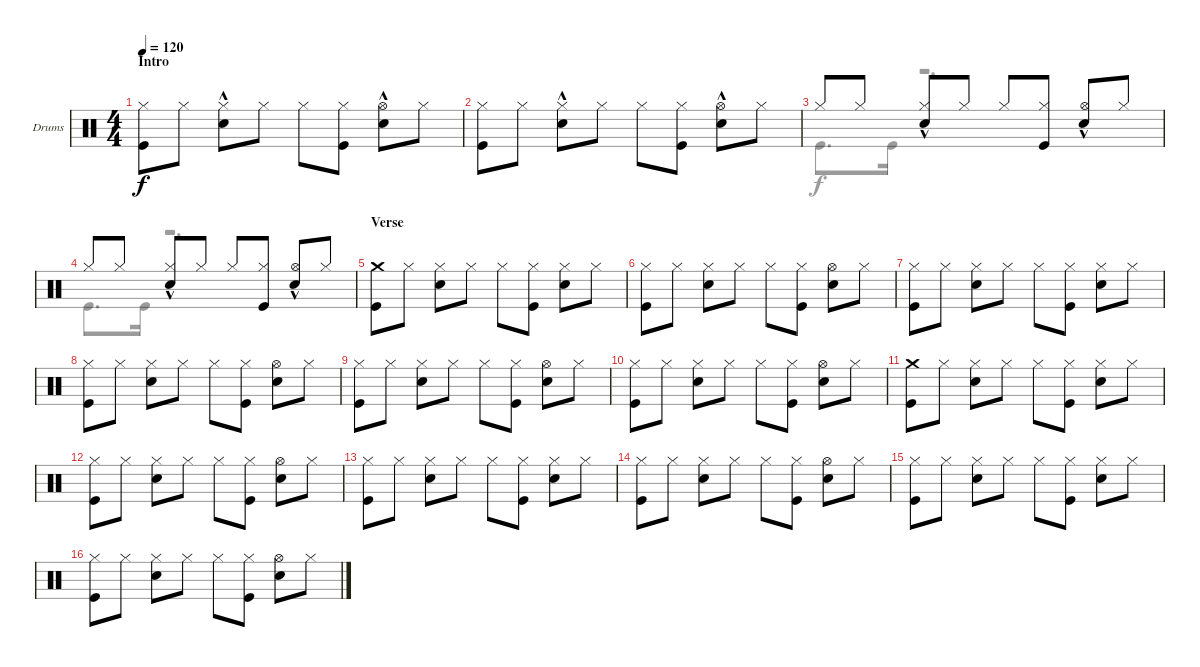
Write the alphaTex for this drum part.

\defaultSystemsLayout 4
\bracketExtendMode groupsimilarinstruments
\firstSystemTrackNameOrientation horizontal
\otherSystemsTrackNameOrientation horizontal
\track ("Drums" "Drums") {instrument percussion}
\staff {score}
\articulation defaults
\voice
\ts (4 4)
\section ("" "Intro")
\tempo 120
\clef neutral
\ks c
("Kick (hit)" "Hi-Hat (closed)").8{dy f} "Hi-Hat (closed)".8 ("Snare (hit) 2"{hac} "Hi-Hat (closed)").8 "Hi-Hat (closed)".8 "Hi-Hat (closed)".8 ("Kick (hit)" "Hi-Hat (closed)").8 ("Snare (hit) 2"{hac} "Hi-Hat (open)").8 "Hi-Hat (closed)".8 |
("Kick (hit)" "Hi-Hat (closed)").8 "Hi-Hat (closed)".8 ("Snare (hit) 2"{hac} "Hi-Hat (closed)").8 "Hi-Hat (closed)".8 "Hi-Hat (closed)".8 ("Kick (hit)" "Hi-Hat (closed)").8 ("Snare (hit) 2"{hac} "Hi-Hat (open)").8 "Hi-Hat (closed)".8 |
"Hi-Hat (closed)".8 "Hi-Hat (closed)".8 ("Hi-Hat (closed)" "Snare (hit) 2"{hac}).8 "Hi-Hat (closed)".8 "Hi-Hat (closed)".8 ("Hi-Hat (closed)" "Kick (hit)").8 ("Hi-Hat (open)" "Snare (hit) 2"{hac}).8 "Hi-Hat (closed)".8 |
"Hi-Hat (closed)".8 "Hi-Hat (closed)".8 ("Hi-Hat (closed)" "Snare (hit) 2"{hac}).8 "Hi-Hat (closed)".8 "Hi-Hat (closed)".8 ("Hi-Hat (closed)" "Kick (hit)").8 ("Hi-Hat (open)" "Snare (hit) 2"{hac}).8 "Hi-Hat (closed)".8 |
\section ("" "Verse")
("Kick (hit)" "Crash medium (hit)").8 "Hi-Hat (closed)".8 ("Snare (hit) 2" "Hi-Hat (closed)").8 "Hi-Hat (closed)".8 "Hi-Hat (closed)".8 ("Kick (hit)" "Hi-Hat (closed)").8 ("Snare (hit) 2" "Hi-Hat (closed)").8 "Hi-Hat (closed)".8 |
("Kick (hit)" "Hi-Hat (closed)").8 "Hi-Hat (closed)".8 ("Snare (hit) 2" "Hi-Hat (closed)").8 "Hi-Hat (closed)".8 "Hi-Hat (closed)".8 ("Kick (hit)" "Hi-Hat (closed)").8 ("Snare (hit) 2" "Hi-Hat (open)").8 "Hi-Hat (closed)".8 |
("Kick (hit)" "Hi-Hat (closed)").8 "Hi-Hat (closed)".8 ("Snare (hit) 2" "Hi-Hat (closed)").8 "Hi-Hat (closed)".8 "Hi-Hat (closed)".8 ("Kick (hit)" "Hi-Hat (closed)").8 ("Snare (hit) 2" "Hi-Hat (closed)").8 "Hi-Hat (closed)".8 |
("Kick (hit)" "Hi-Hat (closed)").8 "Hi-Hat (closed)".8 ("Snare (hit) 2" "Hi-Hat (closed)").8 "Hi-Hat (closed)".8 "Hi-Hat (closed)".8 ("Kick (hit)" "Hi-Hat (closed)").8 ("Snare (hit) 2" "Hi-Hat (open)").8 "Hi-Hat (closed)".8 |
("Kick (hit)" "Hi-Hat (closed)").8 "Hi-Hat (closed)".8 ("Snare (hit) 2" "Hi-Hat (closed)").8 "Hi-Hat (closed)".8 "Hi-Hat (closed)".8 ("Kick (hit)" "Hi-Hat (closed)").8 ("Snare (hit) 2" "Hi-Hat (open)").8 "Hi-Hat (closed)".8 |
("Kick (hit)" "Hi-Hat (closed)").8 "Hi-Hat (closed)".8 ("Snare (hit) 2" "Hi-Hat (closed)").8 "Hi-Hat (closed)".8 "Hi-Hat (closed)".8 ("Kick (hit)" "Hi-Hat (closed)").8 ("Snare (hit) 2" "Hi-Hat (open)").8 "Hi-Hat (closed)".8 |
("Kick (hit)" "Crash medium (hit)").8 "Hi-Hat (closed)".8 ("Snare (hit) 2" "Hi-Hat (closed)").8 "Hi-Hat (closed)".8 "Hi-Hat (closed)".8 ("Kick (hit)" "Hi-Hat (closed)").8 ("Snare (hit) 2" "Hi-Hat (closed)").8 "Hi-Hat (closed)".8 |
("Kick (hit)" "Hi-Hat (closed)").8 "Hi-Hat (closed)".8 ("Snare (hit) 2" "Hi-Hat (closed)").8 "Hi-Hat (closed)".8 "Hi-Hat (closed)".8 ("Kick (hit)" "Hi-Hat (closed)").8 ("Snare (hit) 2" "Hi-Hat (open)").8 "Hi-Hat (closed)".8 |
("Kick (hit)" "Hi-Hat (closed)").8 "Hi-Hat (closed)".8 ("Snare (hit) 2" "Hi-Hat (closed)").8 "Hi-Hat (closed)".8 "Hi-Hat (closed)".8 ("Kick (hit)" "Hi-Hat (closed)").8 ("Snare (hit) 2" "Hi-Hat (closed)").8 "Hi-Hat (closed)".8 |
("Kick (hit)" "Hi-Hat (closed)").8 "Hi-Hat (closed)".8 ("Snare (hit) 2" "Hi-Hat (closed)").8 "Hi-Hat (closed)".8 "Hi-Hat (closed)".8 ("Kick (hit)" "Hi-Hat (closed)").8 ("Snare (hit) 2" "Hi-Hat (open)").8 "Hi-Hat (closed)".8 |
("Kick (hit)" "Hi-Hat (closed)").8 "Hi-Hat (closed)".8 ("Snare (hit) 2" "Hi-Hat (closed)").8 "Hi-Hat (closed)".8 "Hi-Hat (closed)".8 ("Kick (hit)" "Hi-Hat (closed)").8 ("Snare (hit) 2" "Hi-Hat (closed)").8 "Hi-Hat (closed)".8 |
("Kick (hit)" "Hi-Hat (closed)").8 "Hi-Hat (closed)".8 ("Snare (hit) 2" "Hi-Hat (closed)").8 "Hi-Hat (closed)".8 "Hi-Hat (closed)".8 ("Kick (hit)" "Hi-Hat (closed)").8 ("Snare (hit) 2" "Hi-Hat (open)").8 "Hi-Hat (closed)".8
\voice
\clef neutral
\ottava regular
\simile none
\ks c
|
|
"Kick (hit)".8{d} "Kick (hit)".16 r.2{d} |
"Kick (hit)".8{d} "Kick (hit)".16 r.2{d} |
|
|
|
|
|
|
|
|
|
|
|
